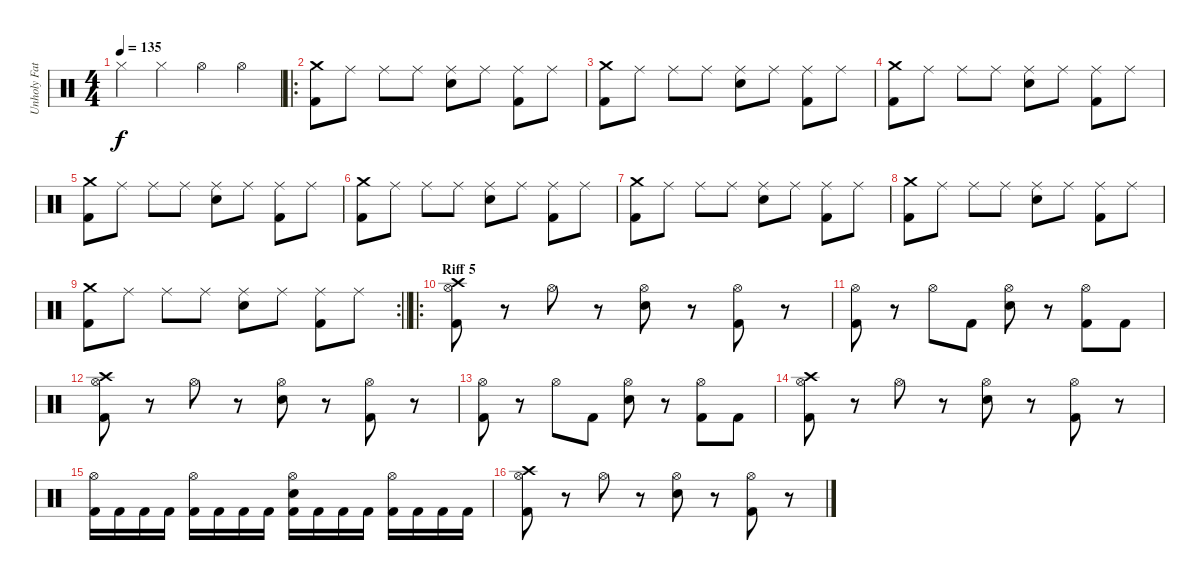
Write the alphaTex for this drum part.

\track ("Unholy Father" "Unholy Fat") {instrument percussion}
\staff {score}
\articulation defaults
\ts (4 4)
\tempo 135
\clef neutral
\ks c "Hi-Hat (closed)".4{dy f} "Hi-Hat (closed)".4 "Hi-Hat (open)".4 "Hi-Hat (open)".4
|
\ro
("Crash medium (hit)" "Kick (hit) 2").8 "Ride (middle)".8 "Ride (middle)".8 "Ride (middle)".8 ("Ride (middle)" "Snare (hit) 2").8 "Ride (middle)".8 ("Ride (middle)" "Kick (hit) 2").8 "Ride (middle)".8 |
("Crash medium (hit)" "Kick (hit) 2").8 "Ride (middle)".8 "Ride (middle)".8 "Ride (middle)".8 ("Ride (middle)" "Snare (hit) 2").8 "Ride (middle)".8 ("Ride (middle)" "Kick (hit) 2").8 "Ride (middle)".8 |
("Crash medium (hit)" "Kick (hit) 2").8 "Ride (middle)".8 "Ride (middle)".8 "Ride (middle)".8 ("Ride (middle)" "Snare (hit) 2").8 "Ride (middle)".8 ("Ride (middle)" "Kick (hit) 2").8 "Ride (middle)".8 |
("Crash medium (hit)" "Kick (hit) 2").8 "Ride (middle)".8 "Ride (middle)".8 "Ride (middle)".8 ("Ride (middle)" "Snare (hit) 2").8 "Ride (middle)".8 ("Ride (middle)" "Kick (hit) 2").8 "Ride (middle)".8 |
("Crash medium (hit)" "Kick (hit) 2").8 "Ride (middle)".8 "Ride (middle)".8 "Ride (middle)".8 ("Ride (middle)" "Snare (hit) 2").8 "Ride (middle)".8 ("Ride (middle)" "Kick (hit) 2").8 "Ride (middle)".8 |
("Crash medium (hit)" "Kick (hit) 2").8 "Ride (middle)".8 "Ride (middle)".8 "Ride (middle)".8 ("Ride (middle)" "Snare (hit) 2").8 "Ride (middle)".8 ("Ride (middle)" "Kick (hit) 2").8 "Ride (middle)".8 |
("Crash medium (hit)" "Kick (hit) 2").8 "Ride (middle)".8 "Ride (middle)".8 "Ride (middle)".8 ("Ride (middle)" "Snare (hit) 2").8 "Ride (middle)".8 ("Ride (middle)" "Kick (hit) 2").8 "Ride (middle)".8 |
\rc 2
\barLineRight lightlight
("Crash medium (hit)" "Kick (hit) 2").8 "Ride (middle)".8 "Ride (middle)".8 "Ride (middle)".8 ("Ride (middle)" "Snare (hit) 2").8 "Ride (middle)".8 ("Ride (middle)" "Kick (hit) 2").8 "Ride (middle)".8 |
\ro
\section ("" "Riff 5")
("Crash high (hit)" "Hi-Hat (open)" "Kick (hit) 2").8 r.8 "Hi-Hat (open)".8 r.8 ("Hi-Hat (open)" "Snare (hit) 2").8 r.8 ("Hi-Hat (open)" "Kick (hit) 2").8 r.8 |
("Hi-Hat (open)" "Kick (hit) 2").8 r.8 "Hi-Hat (open)".8 "Kick (hit) 2".8 ("Hi-Hat (open)" "Snare (hit) 2").8 r.8 ("Hi-Hat (open)" "Kick (hit) 2").8 "Kick (hit) 2".8 |
("Crash high (hit)" "Hi-Hat (open)" "Kick (hit) 2").8 r.8 "Hi-Hat (open)".8 r.8 ("Hi-Hat (open)" "Snare (hit) 2").8 r.8 ("Hi-Hat (open)" "Kick (hit) 2").8 r.8 |
("Hi-Hat (open)" "Kick (hit) 2").8 r.8 "Hi-Hat (open)".8 "Kick (hit) 2".8 ("Hi-Hat (open)" "Snare (hit) 2").8 r.8 ("Hi-Hat (open)" "Kick (hit) 2").8 "Kick (hit) 2".8 |
("Crash high (hit)" "Hi-Hat (open)" "Kick (hit) 2").8 r.8 "Hi-Hat (open)".8 r.8 ("Hi-Hat (open)" "Snare (hit) 2").8 r.8 ("Hi-Hat (open)" "Kick (hit) 2").8 r.8 |
("Hi-Hat (open)" "Kick (hit) 2").16 "Kick (hit) 2".16 "Kick (hit) 2".16 "Kick (hit) 2".16 ("Hi-Hat (open)" "Kick (hit) 2").16 "Kick (hit) 2".16 "Kick (hit) 2".16 "Kick (hit) 2".16 ("Hi-Hat (open)" "Snare (hit) 2" "Kick (hit) 2").16 "Kick (hit) 2".16 "Kick (hit) 2".16 "Kick (hit) 2".16 ("Hi-Hat (open)" "Kick (hit) 2").16 "Kick (hit) 2".16 "Kick (hit) 2".16 "Kick (hit) 2".16 |
("Crash high (hit)" "Hi-Hat (open)" "Kick (hit) 2").8 r.8 "Hi-Hat (open)".8 r.8 ("Hi-Hat (open)" "Snare (hit) 2").8 r.8 ("Hi-Hat (open)" "Kick (hit) 2").8 r.8
